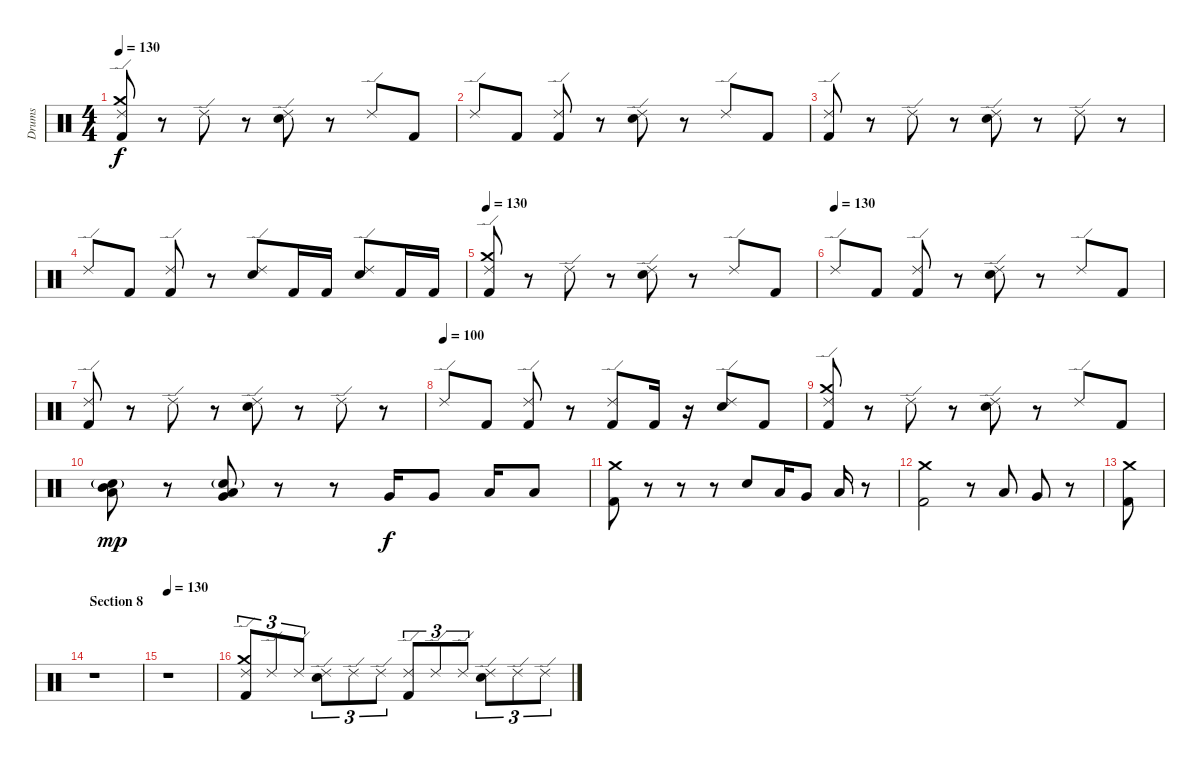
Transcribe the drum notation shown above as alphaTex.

\track ("Drums" "Drums") {instrument percussion}
\staff {score}
\articulation defaults
\ts (4 4)
\tempo 130
\clef neutral
\ks c
("Kick (hit) 2" "Crash medium (hit)" "Ride (edge) 2").8{dy f} r.8 "Ride (edge) 2".8 r.8 ("Electric Snare (hit)" "Ride (edge) 2").8 r.8 "Ride (edge) 2".8 "Kick (hit) 2".8 |
"Ride (edge) 2".8 "Kick (hit) 2".8 ("Kick (hit) 2" "Ride (edge) 2").8 r.8 ("Electric Snare (hit)" "Ride (edge) 2").8 r.8 "Ride (edge) 2".8 "Kick (hit) 2".8 |
("Kick (hit) 2" "Ride (edge) 2").8 r.8 "Ride (edge) 2".8 r.8 ("Electric Snare (hit)" "Ride (edge) 2").8 r.8 "Ride (edge) 2".8 r.8 |
"Ride (edge) 2".8 "Kick (hit) 2".8 ("Kick (hit) 2" "Ride (edge) 2").8 r.8 ("Electric Snare (hit)" "Ride (edge) 2").8 "Kick (hit) 2".16 "Kick (hit) 2".16 ("Electric Snare (hit)" "Ride (edge) 2").8 "Kick (hit) 2".16 "Kick (hit) 2".16 |
\tempo 130
("Kick (hit) 2" "Crash medium (hit)" "Ride (edge) 2").8 r.8 "Ride (edge) 2".8 r.8 ("Electric Snare (hit)" "Ride (edge) 2").8 r.8 "Ride (edge) 2".8 "Kick (hit) 2".8 |
\tempo (130)
"Ride (edge) 2".8 "Kick (hit) 2".8 ("Kick (hit) 2" "Ride (edge) 2").8 r.8 ("Electric Snare (hit)" "Ride (edge) 2").8 r.8 "Ride (edge) 2".8 "Kick (hit) 2".8 |
("Kick (hit) 2" "Ride (edge) 2").8 r.8 "Ride (edge) 2".8 r.8 ("Electric Snare (hit)" "Ride (edge) 2").8 r.8 "Ride (edge) 2".8 r.8 |
\tempo (100)
"Ride (edge) 2".8 "Kick (hit) 2".8 ("Kick (hit) 2" "Ride (edge) 2").8 r.8 ("Kick (hit) 2" "Ride (edge) 2").8 "Kick (hit) 2".16 r.16 ("Electric Snare (hit)" "Ride (edge) 2").8 "Kick (hit) 2".8 |
("Kick (hit) 2" "Crash medium (hit)" "Ride (edge) 2").8 r.8 "Ride (edge) 2".8 r.8 ("Electric Snare (hit)" "Ride (edge) 2").8 r.8 "Ride (edge) 2".8 "Kick (hit) 2".8 |
("Mid Tom (hit)" "Low Tom (hit)" "Electric Snare (hit)"{g}).8{dy mp} r.8 ("Low Tom (hit)" "Very Low Tom (hit)" "Electric Snare (hit)"{g}).8 r.8 r.8 "Very Low Tom (hit)".16{dy f} "Very Low Tom (hit)".8 "Low Floor Tom (hit)".16 "Low Floor Tom (hit)".8 |
("Kick (hit) 2" "Crash medium (hit)").8 r.8 r.8 r.8 "Electric Snare (hit)".8 "Low Tom (hit)".16 "Very Low Tom (hit)".8 "Low Floor Tom (hit)".16 r.8 |
("Kick (hit) 2" "Crash medium (hit)").2 r.8 "Low Tom (hit)".8 "Very Low Tom (hit)".8 r.8 |
("Kick (hit) 2" "Crash medium (hit)").8 |
\section ("" "Section 8")
r.1 |
\tempo 130
r.1 |
("Ride (edge) 2" "Kick (hit) 2" "Crash medium (hit)").8{tu (3 2)} "Ride (edge) 2".8{tu (3 2)} "Ride (edge) 2".8{tu (3 2)} ("Ride (edge) 2" "Electric Snare (hit)").8{tu (3 2)} "Ride (edge) 2".8{tu (3 2)} "Ride (edge) 2".8{tu (3 2)} ("Ride (edge) 2" "Kick (hit) 2").8{tu (3 2)} "Ride (edge) 2".8{tu (3 2)} "Ride (edge) 2".8{tu (3 2)} ("Ride (edge) 2" "Electric Snare (hit)").8{tu (3 2)} "Ride (edge) 2".8{tu (3 2)} "Ride (edge) 2".8{tu (3 2)}
